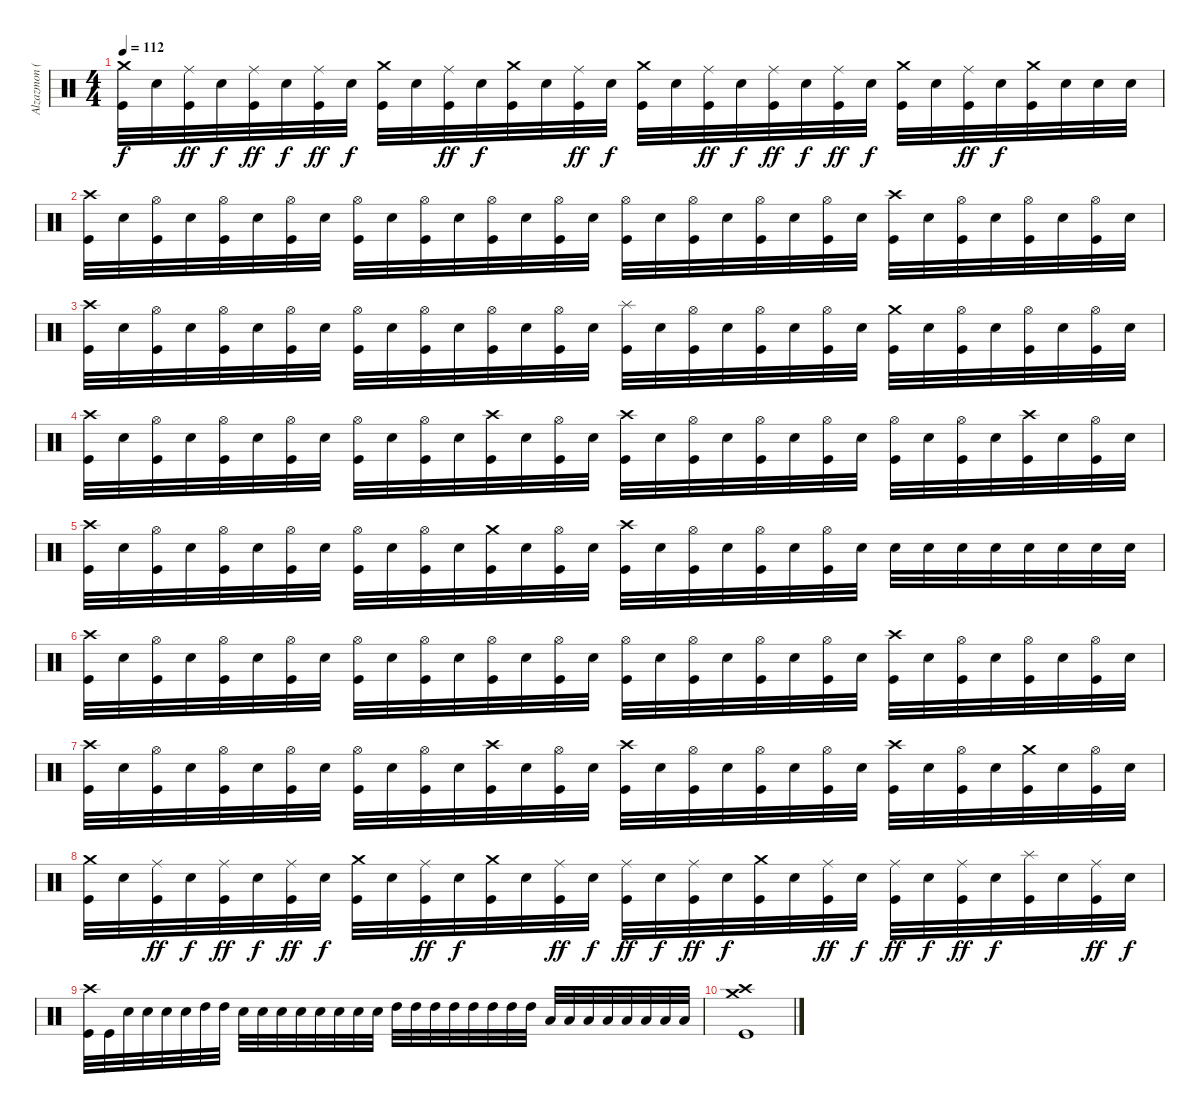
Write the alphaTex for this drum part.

\track ("Alzazmon (Drums)" "Alzazmon (") {instrument percussion}
\staff {score}
\articulation defaults
\ts (4 4)
\tempo 112
\clef neutral
\ks c
("Crash medium (hit)" "Kick (hit)").32{dy f} "Electric Snare (hit)".32 ("Ride (middle)" "Kick (hit)").32{dy ff} "Electric Snare (hit)".32{dy f} ("Ride (middle)" "Kick (hit)").32{dy ff} "Electric Snare (hit)".32{dy f} ("Ride (middle)" "Kick (hit)").32{dy ff} "Electric Snare (hit)".32{dy f} ("Crash medium (hit)" "Kick (hit)").32 "Electric Snare (hit)".32 ("Ride (middle)" "Kick (hit)").32{dy ff} "Electric Snare (hit)".32{dy f} ("Crash medium (hit)" "Kick (hit)").32 "Electric Snare (hit)".32 ("Ride (middle)" "Kick (hit)").32{dy ff} "Electric Snare (hit)".32{dy f} ("Crash medium (hit)" "Kick (hit)").32 "Electric Snare (hit)".32 ("Ride (middle)" "Kick (hit)").32{dy ff} "Electric Snare (hit)".32{dy f} ("Ride (middle)" "Kick (hit)").32{dy ff} "Electric Snare (hit)".32{dy f} ("Ride (middle)" "Kick (hit)").32{dy ff} "Electric Snare (hit)".32{dy f} ("Crash medium (hit)" "Kick (hit)").32 "Electric Snare (hit)".32 ("Ride (middle)" "Kick (hit)").32{dy ff} "Electric Snare (hit)".32{dy f} ("Crash medium (hit)" "Kick (hit)").32 "Electric Snare (hit)".32 "Electric Snare (hit)".32 "Electric Snare (hit)".32 |
("Crash high (hit)" "Kick (hit)").32 "Electric Snare (hit)".32 ("Hi-Hat (open)" "Kick (hit)").32 "Electric Snare (hit)".32 ("Hi-Hat (open)" "Kick (hit)").32 "Electric Snare (hit)".32 ("Hi-Hat (open)" "Kick (hit)").32 "Electric Snare (hit)".32 ("Hi-Hat (open)" "Kick (hit)").32 "Electric Snare (hit)".32 ("Hi-Hat (open)" "Kick (hit)").32 "Electric Snare (hit)".32 ("Hi-Hat (open)" "Kick (hit)").32 "Electric Snare (hit)".32 ("Hi-Hat (open)" "Kick (hit)").32 "Electric Snare (hit)".32 ("Hi-Hat (open)" "Kick (hit)").32 "Electric Snare (hit)".32 ("Hi-Hat (open)" "Kick (hit)").32 "Electric Snare (hit)".32 ("Hi-Hat (open)" "Kick (hit)").32 "Electric Snare (hit)".32 ("Hi-Hat (open)" "Kick (hit)").32 "Electric Snare (hit)".32 ("Crash high (hit)" "Kick (hit)").32 "Electric Snare (hit)".32 ("Hi-Hat (open)" "Kick (hit)").32 "Electric Snare (hit)".32 ("Hi-Hat (open)" "Kick (hit)").32 "Electric Snare (hit)".32 ("Hi-Hat (open)" "Kick (hit)").32 "Electric Snare (hit)".32 |
("Crash high (hit)" "Kick (hit)").32 "Electric Snare (hit)".32 ("Hi-Hat (open)" "Kick (hit)").32 "Electric Snare (hit)".32 ("Hi-Hat (open)" "Kick (hit)").32 "Electric Snare (hit)".32 ("Hi-Hat (open)" "Kick (hit)").32 "Electric Snare (hit)".32 ("Hi-Hat (open)" "Kick (hit)").32 "Electric Snare (hit)".32 ("Hi-Hat (open)" "Kick (hit)").32 "Electric Snare (hit)".32 ("Hi-Hat (open)" "Kick (hit)").32 "Electric Snare (hit)".32 ("Hi-Hat (open)" "Kick (hit)").32 "Electric Snare (hit)".32 ("Splash (hit)" "Kick (hit)").32 "Electric Snare (hit)".32 ("Hi-Hat (open)" "Kick (hit)").32 "Electric Snare (hit)".32 ("Hi-Hat (open)" "Kick (hit)").32 "Electric Snare (hit)".32 ("Hi-Hat (open)" "Kick (hit)").32 "Electric Snare (hit)".32 ("Crash medium (hit)" "Kick (hit)").32 "Electric Snare (hit)".32 ("Hi-Hat (open)" "Kick (hit)").32 "Electric Snare (hit)".32 ("Hi-Hat (open)" "Kick (hit)").32 "Electric Snare (hit)".32 ("Hi-Hat (open)" "Kick (hit)").32 "Electric Snare (hit)".32 |
("Crash high (hit)" "Kick (hit)").32 "Electric Snare (hit)".32 ("Hi-Hat (open)" "Kick (hit)").32 "Electric Snare (hit)".32 ("Hi-Hat (open)" "Kick (hit)").32 "Electric Snare (hit)".32 ("Hi-Hat (open)" "Kick (hit)").32 "Electric Snare (hit)".32 ("Hi-Hat (open)" "Kick (hit)").32 "Electric Snare (hit)".32 ("Hi-Hat (open)" "Kick (hit)").32 "Electric Snare (hit)".32 ("Crash high (hit)" "Kick (hit)").32 "Electric Snare (hit)".32 ("Hi-Hat (open)" "Kick (hit)").32 "Electric Snare (hit)".32 ("Crash high (hit)" "Kick (hit)").32 "Electric Snare (hit)".32 ("Hi-Hat (open)" "Kick (hit)").32 "Electric Snare (hit)".32 ("Hi-Hat (open)" "Kick (hit)").32 "Electric Snare (hit)".32 ("Hi-Hat (open)" "Kick (hit)").32 "Electric Snare (hit)".32 ("Hi-Hat (open)" "Kick (hit)").32 "Electric Snare (hit)".32 ("Hi-Hat (open)" "Kick (hit)").32 "Electric Snare (hit)".32 ("Crash high (hit)" "Kick (hit)").32 "Electric Snare (hit)".32 ("Hi-Hat (open)" "Kick (hit)").32 "Electric Snare (hit)".32 |
("Crash high (hit)" "Kick (hit)").32 "Electric Snare (hit)".32 ("Hi-Hat (open)" "Kick (hit)").32 "Electric Snare (hit)".32 ("Hi-Hat (open)" "Kick (hit)").32 "Electric Snare (hit)".32 ("Hi-Hat (open)" "Kick (hit)").32 "Electric Snare (hit)".32 ("Hi-Hat (open)" "Kick (hit)").32 "Electric Snare (hit)".32 ("Hi-Hat (open)" "Kick (hit)").32 "Electric Snare (hit)".32 ("Crash medium (hit)" "Kick (hit)").32 "Electric Snare (hit)".32 ("Hi-Hat (open)" "Kick (hit)").32 "Electric Snare (hit)".32 ("Crash high (hit)" "Kick (hit)").32 "Electric Snare (hit)".32 ("Hi-Hat (open)" "Kick (hit)").32 "Electric Snare (hit)".32 ("Hi-Hat (open)" "Kick (hit)").32 "Electric Snare (hit)".32 ("Hi-Hat (open)" "Kick (hit)").32 "Electric Snare (hit)".32 "Electric Snare (hit)".32 "Electric Snare (hit)".32 "Electric Snare (hit)".32 "Electric Snare (hit)".32 "Electric Snare (hit)".32 "Electric Snare (hit)".32 "Electric Snare (hit)".32 "Electric Snare (hit)".32 |
("Crash high (hit)" "Kick (hit)").32 "Electric Snare (hit)".32 ("Hi-Hat (open)" "Kick (hit)").32 "Electric Snare (hit)".32 ("Hi-Hat (open)" "Kick (hit)").32 "Electric Snare (hit)".32 ("Hi-Hat (open)" "Kick (hit)").32 "Electric Snare (hit)".32 ("Hi-Hat (open)" "Kick (hit)").32 "Electric Snare (hit)".32 ("Hi-Hat (open)" "Kick (hit)").32 "Electric Snare (hit)".32 ("Hi-Hat (open)" "Kick (hit)").32 "Electric Snare (hit)".32 ("Hi-Hat (open)" "Kick (hit)").32 "Electric Snare (hit)".32 ("Hi-Hat (open)" "Kick (hit)").32 "Electric Snare (hit)".32 ("Hi-Hat (open)" "Kick (hit)").32 "Electric Snare (hit)".32 ("Hi-Hat (open)" "Kick (hit)").32 "Electric Snare (hit)".32 ("Hi-Hat (open)" "Kick (hit)").32 "Electric Snare (hit)".32 ("Crash high (hit)" "Kick (hit)").32 "Electric Snare (hit)".32 ("Hi-Hat (open)" "Kick (hit)").32 "Electric Snare (hit)".32 ("Hi-Hat (open)" "Kick (hit)").32 "Electric Snare (hit)".32 ("Hi-Hat (open)" "Kick (hit)").32 "Electric Snare (hit)".32 |
("Crash high (hit)" "Kick (hit)").32 "Electric Snare (hit)".32 ("Hi-Hat (open)" "Kick (hit)").32 "Electric Snare (hit)".32 ("Hi-Hat (open)" "Kick (hit)").32 "Electric Snare (hit)".32 ("Hi-Hat (open)" "Kick (hit)").32 "Electric Snare (hit)".32 ("Hi-Hat (open)" "Kick (hit)").32 "Electric Snare (hit)".32 ("Hi-Hat (open)" "Kick (hit)").32 "Electric Snare (hit)".32 ("Crash high (hit)" "Kick (hit)").32 "Electric Snare (hit)".32 ("Hi-Hat (open)" "Kick (hit)").32 "Electric Snare (hit)".32 ("Crash high (hit)" "Kick (hit)").32 "Electric Snare (hit)".32 ("Hi-Hat (open)" "Kick (hit)").32 "Electric Snare (hit)".32 ("Hi-Hat (open)" "Kick (hit)").32 "Electric Snare (hit)".32 ("Hi-Hat (open)" "Kick (hit)").32 "Electric Snare (hit)".32 ("Crash high (hit)" "Kick (hit)").32 "Electric Snare (hit)".32 ("Hi-Hat (open)" "Kick (hit)").32 "Electric Snare (hit)".32 ("Crash medium (hit)" "Kick (hit)").32 "Electric Snare (hit)".32 ("Hi-Hat (open)" "Kick (hit)").32 "Electric Snare (hit)".32 |
("Crash medium (hit)" "Kick (hit)").32 "Electric Snare (hit)".32 ("Ride (middle)" "Kick (hit)").32{dy ff} "Electric Snare (hit)".32{dy f} ("Ride (middle)" "Kick (hit)").32{dy ff} "Electric Snare (hit)".32{dy f} ("Ride (middle)" "Kick (hit)").32{dy ff} "Electric Snare (hit)".32{dy f} ("Crash medium (hit)" "Kick (hit)").32 "Electric Snare (hit)".32 ("Ride (middle)" "Kick (hit)").32{dy ff} "Electric Snare (hit)".32{dy f} ("Crash medium (hit)" "Kick (hit)").32 "Electric Snare (hit)".32 ("Ride (middle)" "Kick (hit)").32{dy ff} "Electric Snare (hit)".32{dy f} ("Ride (middle)" "Kick (hit)").32{dy ff} "Electric Snare (hit)".32{dy f} ("Ride (middle)" "Kick (hit)").32{dy ff} "Electric Snare (hit)".32{dy f} ("Crash medium (hit)" "Kick (hit)").32 "Electric Snare (hit)".32 ("Ride (middle)" "Kick (hit)").32{dy ff} "Electric Snare (hit)".32{dy f} ("Ride (middle)" "Kick (hit)").32{dy ff} "Electric Snare (hit)".32{dy f} ("Ride (middle)" "Kick (hit)").32{dy ff} "Electric Snare (hit)".32{dy f} ("Splash (hit)" "Kick (hit)").32 "Electric Snare (hit)".32 ("Ride (middle)" "Kick (hit)").32{dy ff} "Electric Snare (hit)".32{dy f} |
("Crash high (hit)" "Kick (hit)").32 "Kick (hit)".32 "Electric Snare (hit)".32 "Electric Snare (hit)".32 "Electric Snare (hit)".32 "Electric Snare (hit)".32 "High Tom (hit)".32 "High Tom (hit)".32 "Electric Snare (hit)".32 "Electric Snare (hit)".32 "Electric Snare (hit)".32 "Electric Snare (hit)".32 "Electric Snare (hit)".32 "Electric Snare (hit)".32 "Electric Snare (hit)".32 "Electric Snare (hit)".32 "High Tom (hit)".32 "High Tom (hit)".32 "High Tom (hit)".32 "High Tom (hit)".32 "High Tom (hit)".32 "High Tom (hit)".32 "High Tom (hit)".32 "High Tom (hit)".32 "Low Tom (hit)".32 "Low Tom (hit)".32 "Low Tom (hit)".32 "Low Tom (hit)".32 "Low Tom (hit)".32 "Low Tom (hit)".32 "Low Tom (hit)".32 "Low Tom (hit)".32 |
("Crash high (hit)" "Crash medium (hit)" "Kick (hit)").1
